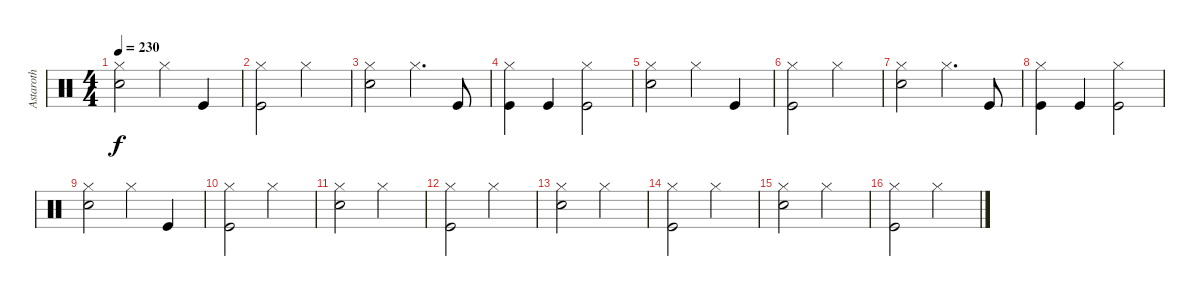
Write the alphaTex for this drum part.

\track ("Astaroth" "Astaroth") {instrument percussion}
\staff {score}
\articulation defaults
\ts (4 4)
\tempo 230
\clef neutral
\ks c
("Electric Snare (hit)" "Hi-Hat (closed)").2{dy f} "Hi-Hat (closed)".4 "Kick (hit)".4 |
("Kick (hit)" "Hi-Hat (closed)").2 "Hi-Hat (closed)".2 |
("Electric Snare (hit)" "Hi-Hat (closed)").2 "Hi-Hat (closed)".4{d} "Kick (hit)".8 |
("Kick (hit)" "Hi-Hat (closed)").4 "Kick (hit)".4 ("Kick (hit)" "Hi-Hat (closed)").2 |
("Electric Snare (hit)" "Hi-Hat (closed)").2 "Hi-Hat (closed)".4 "Kick (hit)".4 |
("Kick (hit)" "Hi-Hat (closed)").2 "Hi-Hat (closed)".2 |
("Electric Snare (hit)" "Hi-Hat (closed)").2 "Hi-Hat (closed)".4{d} "Kick (hit)".8 |
("Kick (hit)" "Hi-Hat (closed)").4 "Kick (hit)".4 ("Kick (hit)" "Hi-Hat (closed)").2 |
("Electric Snare (hit)" "Hi-Hat (closed)").2 "Hi-Hat (closed)".4 "Kick (hit)".4 |
("Kick (hit)" "Hi-Hat (closed)").2 "Hi-Hat (closed)".2 |
("Electric Snare (hit)" "Hi-Hat (closed)").2 "Hi-Hat (closed)".2 |
("Kick (hit)" "Hi-Hat (closed)").2 "Hi-Hat (closed)".2 |
("Electric Snare (hit)" "Hi-Hat (closed)").2 "Hi-Hat (closed)".2 |
("Kick (hit)" "Hi-Hat (closed)").2 "Hi-Hat (closed)".2 |
("Electric Snare (hit)" "Hi-Hat (closed)").2 "Hi-Hat (closed)".2 |
("Kick (hit)" "Hi-Hat (closed)").2 "Hi-Hat (closed)".2
